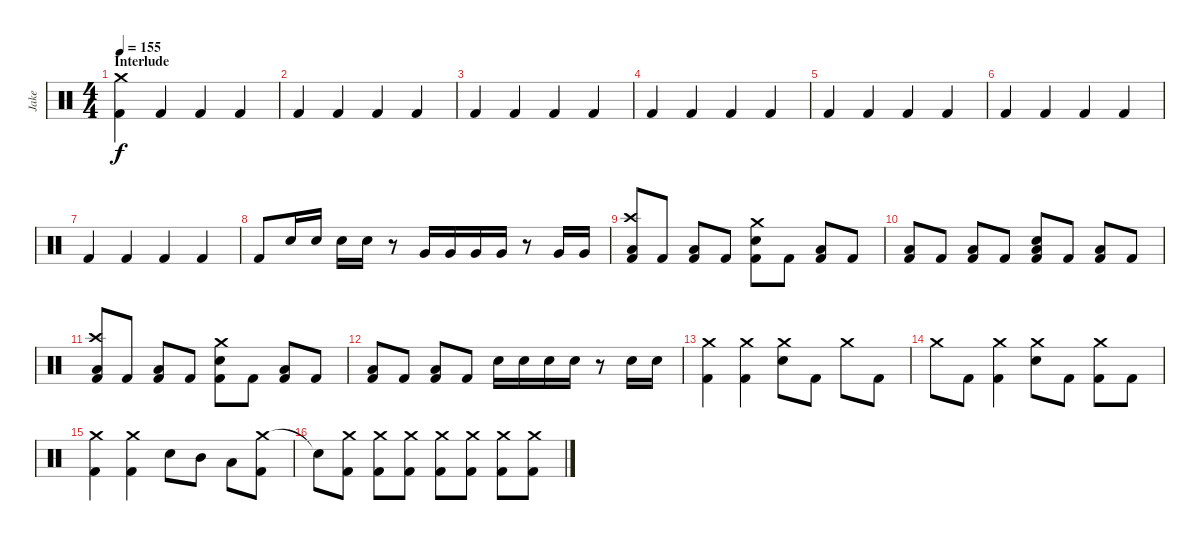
\track ("Jake" "Jake") {instrument percussion}
\staff {score}
\articulation defaults
\ts (4 4)
\section ("" "Interlude")
\tempo 155
\clef neutral
\ks c
("Crash medium (hit)" "Kick (hit) 2").4{dy f} "Kick (hit) 2".4 "Kick (hit) 2".4 "Kick (hit) 2".4 |
"Kick (hit) 2".4 "Kick (hit) 2".4 "Kick (hit) 2".4 "Kick (hit) 2".4 |
"Kick (hit) 2".4 "Kick (hit) 2".4 "Kick (hit) 2".4 "Kick (hit) 2".4 |
"Kick (hit) 2".4 "Kick (hit) 2".4 "Kick (hit) 2".4 "Kick (hit) 2".4 |
"Kick (hit) 2".4 "Kick (hit) 2".4 "Kick (hit) 2".4 "Kick (hit) 2".4 |
"Kick (hit) 2".4 "Kick (hit) 2".4 "Kick (hit) 2".4 "Kick (hit) 2".4 |
"Kick (hit) 2".4 "Kick (hit) 2".4 "Kick (hit) 2".4 "Kick (hit) 2".4 |
"Kick (hit) 2".8 "Electric Snare (hit)".16 "Electric Snare (hit)".16 "Electric Snare (hit)".16 "Electric Snare (hit)".16 r.8 "Very Low Tom (hit)".16 "Very Low Tom (hit)".16 "Very Low Tom (hit)".16 "Very Low Tom (hit)".16 r.8 "Very Low Tom (hit)".16 "Very Low Tom (hit)".16 |
("Crash high (hit)" "Low Floor Tom (hit)" "Kick (hit) 2").8 "Kick (hit) 2".8 ("Low Floor Tom (hit)" "Kick (hit) 2").8 "Kick (hit) 2".8 ("Crash medium (hit)" "Electric Snare (hit)" "Kick (hit) 2").8 "Kick (hit) 2".8 ("Low Floor Tom (hit)" "Kick (hit) 2").8 "Kick (hit) 2".8 |
("Low Floor Tom (hit)" "Kick (hit) 2").8 "Kick (hit) 2".8 ("Low Floor Tom (hit)" "Kick (hit) 2").8 "Kick (hit) 2".8 ("Electric Snare (hit)" "Low Floor Tom (hit)" "Kick (hit) 2").8 "Kick (hit) 2".8 ("Low Floor Tom (hit)" "Kick (hit) 2").8 "Kick (hit) 2".8 |
("Crash high (hit)" "Low Floor Tom (hit)" "Kick (hit) 2").8 "Kick (hit) 2".8 ("Low Floor Tom (hit)" "Kick (hit) 2").8 "Kick (hit) 2".8 ("Crash medium (hit)" "Electric Snare (hit)" "Kick (hit) 2").8 "Kick (hit) 2".8 ("Low Floor Tom (hit)" "Kick (hit) 2").8 "Kick (hit) 2".8 |
("Low Floor Tom (hit)" "Kick (hit) 2").8 "Kick (hit) 2".8 ("Low Floor Tom (hit)" "Kick (hit) 2").8 "Kick (hit) 2".8 "Electric Snare (hit)".16 "Electric Snare (hit)".16 "Electric Snare (hit)".16 "Electric Snare (hit)".16 r.8 "Electric Snare (hit)".16 "Electric Snare (hit)".16 |
("Crash medium (hit)" "Kick (hit) 2").4 ("Crash medium (hit)" "Kick (hit) 2").4 ("Crash medium (hit)" "Electric Snare (hit)").8 "Kick (hit) 2".8 "Crash medium (hit)".8 "Kick (hit) 2".8 |
"Crash medium (hit)".8 "Kick (hit) 2".8 ("Crash medium (hit)" "Kick (hit) 2").4 ("Crash medium (hit)" "Electric Snare (hit)").8 "Kick (hit) 2".8 ("Crash medium (hit)" "Kick (hit) 2").8 "Kick (hit) 2".8 |
("Crash medium (hit)" "Kick (hit) 2").4 ("Crash medium (hit)" "Kick (hit) 2").4 "Electric Snare (hit)".8 "Mid Tom (hit)".8 "Low Floor Tom (hit)".8 ("Crash medium (hit)" "Kick (hit) 2").8 |
"Snare (hit)"{t}.8 ("Crash medium (hit)" "Kick (hit) 2").8 ("Crash medium (hit)" "Kick (hit) 2").8 ("Crash medium (hit)" "Kick (hit) 2").8 ("Crash medium (hit)" "Kick (hit) 2").8 ("Crash medium (hit)" "Kick (hit) 2").8 ("Crash medium (hit)" "Kick (hit) 2").8 ("Crash medium (hit)" "Kick (hit) 2").8
